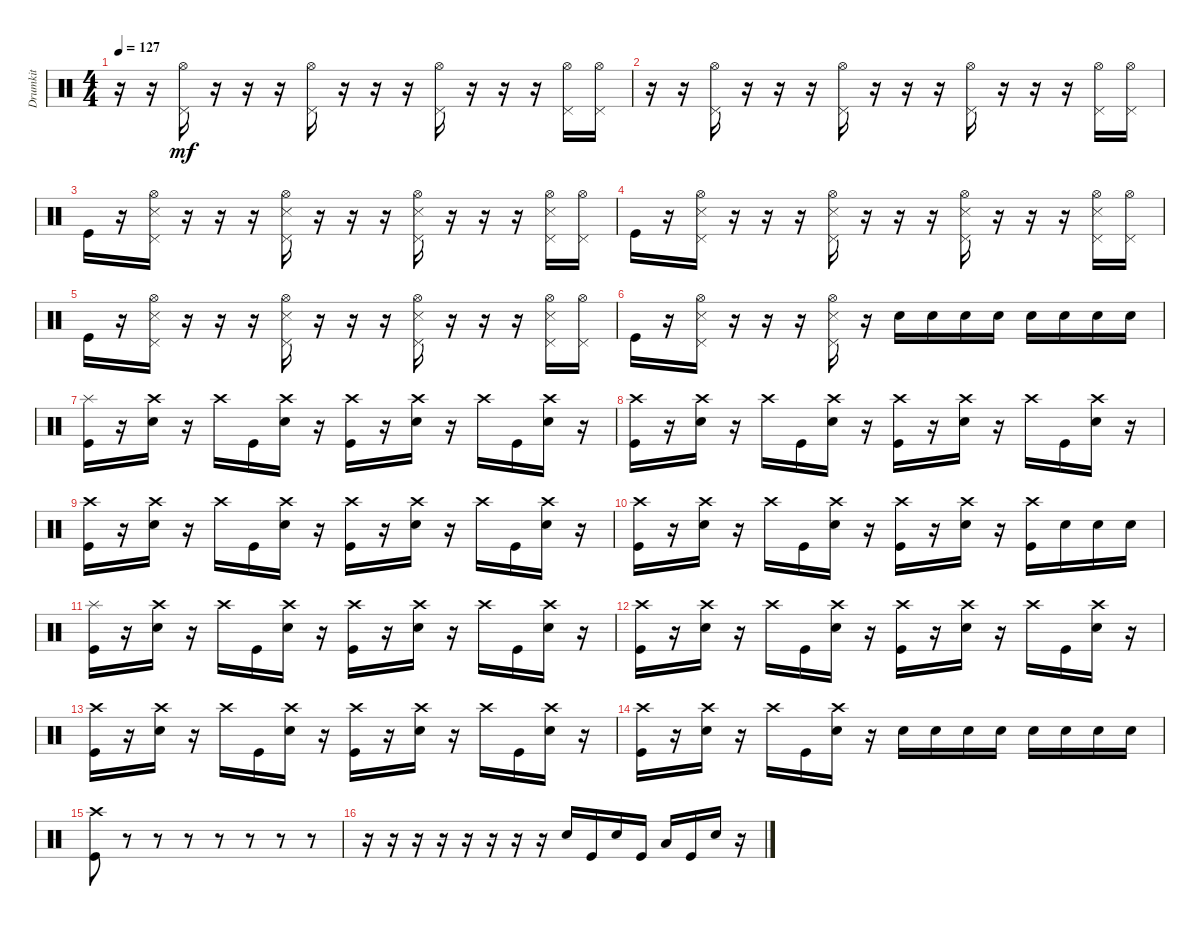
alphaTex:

\track ("Drumkit" "Drumkit") {instrument percussion}
\staff {score}
\articulation defaults
\ts (4 4)
\tempo 127
\clef neutral
\ks c
r.16{dy mf} r.16 ("Hi-Hat (open)" "Pedal Hi-Hat (hit)").16 r.16 r.16 r.16 ("Hi-Hat (open)" "Pedal Hi-Hat (hit)").16 r.16 r.16 r.16 ("Hi-Hat (open)" "Pedal Hi-Hat (hit)").16 r.16 r.16 r.16 ("Hi-Hat (open)" "Pedal Hi-Hat (hit)").16 ("Hi-Hat (open)" "Pedal Hi-Hat (hit)").16 |
r.16 r.16 ("Hi-Hat (open)" "Pedal Hi-Hat (hit)").16 r.16 r.16 r.16 ("Hi-Hat (open)" "Pedal Hi-Hat (hit)").16 r.16 r.16 r.16 ("Hi-Hat (open)" "Pedal Hi-Hat (hit)").16 r.16 r.16 r.16 ("Hi-Hat (open)" "Pedal Hi-Hat (hit)").16 ("Hi-Hat (open)" "Pedal Hi-Hat (hit)").16 |
"Kick (hit)".16 r.16 ("Hi-Hat (open)" "Pedal Hi-Hat (hit)" "Snare (side stick) 3").16 r.16 r.16 r.16 ("Hi-Hat (open)" "Pedal Hi-Hat (hit)" "Snare (side stick) 3").16 r.16 r.16 r.16 ("Hi-Hat (open)" "Pedal Hi-Hat (hit)" "Snare (side stick) 3").16 r.16 r.16 r.16 ("Hi-Hat (open)" "Pedal Hi-Hat (hit)" "Snare (side stick) 3").16 ("Hi-Hat (open)" "Pedal Hi-Hat (hit)").16 |
"Kick (hit)".16 r.16 ("Hi-Hat (open)" "Pedal Hi-Hat (hit)" "Snare (side stick) 3").16 r.16 r.16 r.16 ("Hi-Hat (open)" "Pedal Hi-Hat (hit)" "Snare (side stick) 3").16 r.16 r.16 r.16 ("Hi-Hat (open)" "Pedal Hi-Hat (hit)" "Snare (side stick) 3").16 r.16 r.16 r.16 ("Hi-Hat (open)" "Pedal Hi-Hat (hit)" "Snare (side stick) 3").16 ("Hi-Hat (open)" "Pedal Hi-Hat (hit)").16 |
"Kick (hit)".16 r.16 ("Hi-Hat (open)" "Pedal Hi-Hat (hit)" "Snare (side stick) 3").16 r.16 r.16 r.16 ("Hi-Hat (open)" "Pedal Hi-Hat (hit)" "Snare (side stick) 3").16 r.16 r.16 r.16 ("Hi-Hat (open)" "Pedal Hi-Hat (hit)" "Snare (side stick) 3").16 r.16 r.16 r.16 ("Hi-Hat (open)" "Pedal Hi-Hat (hit)" "Snare (side stick) 3").16 ("Hi-Hat (open)" "Pedal Hi-Hat (hit)").16 |
"Kick (hit)".16 r.16 ("Hi-Hat (open)" "Pedal Hi-Hat (hit)" "Snare (side stick) 3").16 r.16 r.16 r.16 ("Hi-Hat (open)" "Pedal Hi-Hat (hit)" "Snare (side stick) 3").16 r.16 "Snare (hit) 2".16 "Snare (hit) 2".16 "Snare (hit) 2".16 "Snare (hit) 2".16 "Snare (hit) 2".16 "Snare (hit) 2".16 "Snare (hit) 2".16 "Snare (hit) 2".16 |
("Kick (hit)" "Splash (hit)").16 r.16 ("Snare (hit) 2" "Crash high (hit)").16 r.16 "Crash high (hit)".16 "Kick (hit)".16 ("Snare (hit) 2" "Crash high (hit)").16 r.16 ("Kick (hit)" "Crash high (hit)").16 r.16 ("Snare (hit) 2" "Crash high (hit)").16 r.16 "Crash high (hit)".16 "Kick (hit)".16 ("Snare (hit) 2" "Crash high (hit)").16 r.16 |
("Kick (hit)" "Crash high (hit)").16 r.16 ("Snare (hit) 2" "Crash high (hit)").16 r.16 "Crash high (hit)".16 "Kick (hit)".16 ("Snare (hit) 2" "Crash high (hit)").16 r.16 ("Kick (hit)" "Crash high (hit)").16 r.16 ("Snare (hit) 2" "Crash high (hit)").16 r.16 "Crash high (hit)".16 "Kick (hit)".16 ("Snare (hit) 2" "Crash high (hit)").16 r.16 |
("Kick (hit)" "Crash high (hit)").16 r.16 ("Snare (hit) 2" "Crash high (hit)").16 r.16 "Crash high (hit)".16 "Kick (hit)".16 ("Snare (hit) 2" "Crash high (hit)").16 r.16 ("Kick (hit)" "Crash high (hit)").16 r.16 ("Snare (hit) 2" "Crash high (hit)").16 r.16 "Crash high (hit)".16 "Kick (hit)".16 ("Snare (hit) 2" "Crash high (hit)").16 r.16 |
("Kick (hit)" "Crash high (hit)").16 r.16 ("Snare (hit) 2" "Crash high (hit)").16 r.16 "Crash high (hit)".16 "Kick (hit)".16 ("Snare (hit) 2" "Crash high (hit)").16 r.16 ("Kick (hit)" "Crash high (hit)").16 r.16 ("Snare (hit) 2" "Crash high (hit)").16 r.16 ("Crash high (hit)" "Kick (hit)").16 "Snare (hit) 2".16 "Snare (hit) 2".16 "Snare (hit) 2".16 |
("Kick (hit)" "Splash (hit)").16 r.16 ("Snare (hit) 2" "Crash high (hit)").16 r.16 "Crash high (hit)".16 "Kick (hit)".16 ("Snare (hit) 2" "Crash high (hit)").16 r.16 ("Kick (hit)" "Crash high (hit)").16 r.16 ("Snare (hit) 2" "Crash high (hit)").16 r.16 "Crash high (hit)".16 "Kick (hit)".16 ("Snare (hit) 2" "Crash high (hit)").16 r.16 |
("Kick (hit)" "Crash high (hit)").16 r.16 ("Snare (hit) 2" "Crash high (hit)").16 r.16 "Crash high (hit)".16 "Kick (hit)".16 ("Snare (hit) 2" "Crash high (hit)").16 r.16 ("Kick (hit)" "Crash high (hit)").16 r.16 ("Snare (hit) 2" "Crash high (hit)").16 r.16 "Crash high (hit)".16 "Kick (hit)".16 ("Snare (hit) 2" "Crash high (hit)").16 r.16 |
("Kick (hit)" "Crash high (hit)").16 r.16 ("Snare (hit) 2" "Crash high (hit)").16 r.16 "Crash high (hit)".16 "Kick (hit)".16 ("Snare (hit) 2" "Crash high (hit)").16 r.16 ("Kick (hit)" "Crash high (hit)").16 r.16 ("Snare (hit) 2" "Crash high (hit)").16 r.16 "Crash high (hit)".16 "Kick (hit)".16 ("Snare (hit) 2" "Crash high (hit)").16 r.16 |
("Kick (hit)" "Crash high (hit)").16 r.16 ("Snare (hit) 2" "Crash high (hit)").16 r.16 "Crash high (hit)".16 "Kick (hit)".16 ("Snare (hit) 2" "Crash high (hit)").16 r.16 "Snare (hit) 2".16 "Snare (hit) 2".16 "Snare (hit) 2".16 "Snare (hit) 2".16 "Snare (hit) 2".16 "Snare (hit) 2".16 "Snare (hit) 2".16 "Snare (hit) 2".16 |
("Kick (hit)" "Crash high (hit)").8 r.8 r.8 r.8 r.8 r.8 r.8 r.8 |
r.16 r.16 r.16 r.16 r.16 r.16 r.16 r.16 "Snare (hit) 2".16 "Kick (hit)".16 "Snare (hit) 2".16 "Kick (hit)".16 "Low Tom (hit)".16 "Kick (hit)".16 "Snare (hit) 2".16 r.16
